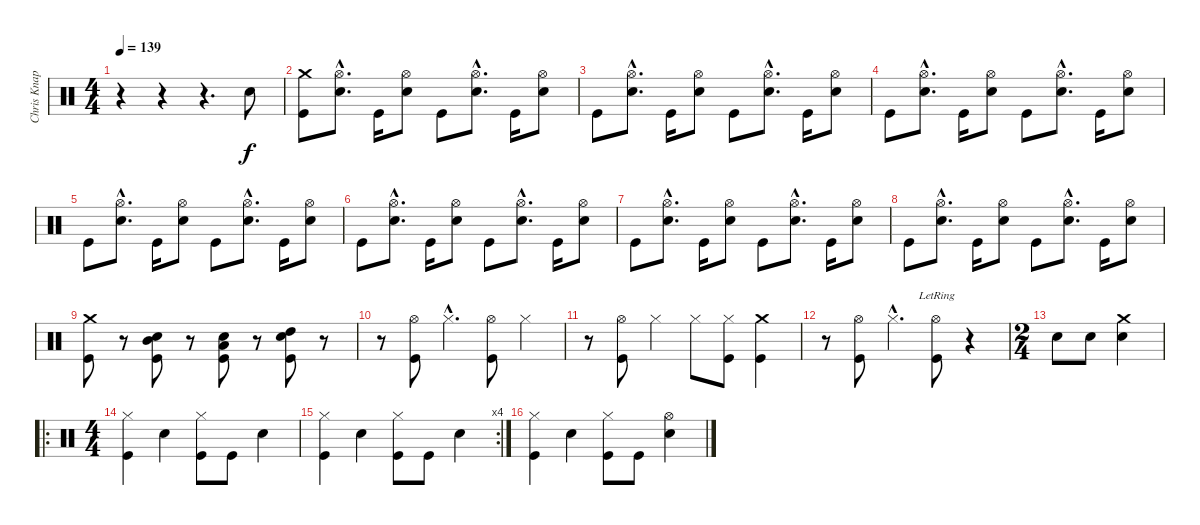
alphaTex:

\track ("Chris Knapp" "Chris Knap") {instrument percussion}
\staff {score}
\articulation defaults
\ts (4 4)
\tempo 139
\clef neutral
\ks c
r.4{dy f} r.4 r.4{d} "Electric Snare (hit)".8 |
("Crash medium (hit)" "Kick (hit)").8 ("Hi-Hat (open)"{hac} "Electric Snare (hit)"{hac}).8{d} "Kick (hit)".16 ("Hi-Hat (open)" "Electric Snare (hit)").8 "Kick (hit)".8 ("Hi-Hat (open)"{hac} "Electric Snare (hit)"{hac}).8{d} "Kick (hit)".16 ("Hi-Hat (open)" "Electric Snare (hit)").8 |
"Kick (hit)".8 ("Hi-Hat (open)"{hac} "Electric Snare (hit)"{hac}).8{d} "Kick (hit)".16 ("Hi-Hat (open)" "Electric Snare (hit)").8 "Kick (hit)".8 ("Hi-Hat (open)"{hac} "Electric Snare (hit)"{hac}).8{d} "Kick (hit)".16 ("Hi-Hat (open)" "Electric Snare (hit)").8 |
"Kick (hit)".8 ("Hi-Hat (open)"{hac} "Electric Snare (hit)"{hac}).8{d} "Kick (hit)".16 ("Hi-Hat (open)" "Electric Snare (hit)").8 "Kick (hit)".8 ("Hi-Hat (open)"{hac} "Electric Snare (hit)"{hac}).8{d} "Kick (hit)".16 ("Hi-Hat (open)" "Electric Snare (hit)").8 |
"Kick (hit)".8 ("Hi-Hat (open)"{hac} "Electric Snare (hit)"{hac}).8{d} "Kick (hit)".16 ("Hi-Hat (open)" "Electric Snare (hit)").8 "Kick (hit)".8 ("Hi-Hat (open)"{hac} "Electric Snare (hit)"{hac}).8{d} "Kick (hit)".16 ("Hi-Hat (open)" "Electric Snare (hit)").8 |
"Kick (hit)".8 ("Hi-Hat (open)"{hac} "Electric Snare (hit)"{hac}).8{d} "Kick (hit)".16 ("Hi-Hat (open)" "Electric Snare (hit)").8 "Kick (hit)".8 ("Hi-Hat (open)"{hac} "Electric Snare (hit)"{hac}).8{d} "Kick (hit)".16 ("Hi-Hat (open)" "Electric Snare (hit)").8 |
"Kick (hit)".8 ("Hi-Hat (open)"{hac} "Electric Snare (hit)"{hac}).8{d} "Kick (hit)".16 ("Hi-Hat (open)" "Electric Snare (hit)").8 "Kick (hit)".8 ("Hi-Hat (open)"{hac} "Electric Snare (hit)"{hac}).8{d} "Kick (hit)".16 ("Hi-Hat (open)" "Electric Snare (hit)").8 |
"Kick (hit)".8 ("Hi-Hat (open)"{hac} "Electric Snare (hit)"{hac}).8{d} "Kick (hit)".16 ("Hi-Hat (open)" "Electric Snare (hit)").8 "Kick (hit)".8 ("Hi-Hat (open)"{hac} "Electric Snare (hit)"{hac}).8{d} "Kick (hit)".16 ("Hi-Hat (open)" "Electric Snare (hit)").8 |
("Crash medium (hit)" "Kick (hit)").8 r.8 ("Electric Snare (hit)" "Mid Tom (hit)" "Kick (hit)").8 r.8 ("Electric Snare (hit)" "Low Floor Tom (hit)" "Kick (hit)").8 r.8 ("Electric Snare (hit)" "High Tom (hit)" "Kick (hit)").8 r.8 |
r.8 ("Hi-Hat (open)" "Kick (hit)").8 "Hi-Hat (closed)"{hac}.4{d} ("Hi-Hat (open)" "Kick (hit)").8 "Hi-Hat (closed)".4 |
r.8 ("Hi-Hat (open)" "Kick (hit)").8 "Hi-Hat (closed)".4 "Hi-Hat (closed)".8 ("Hi-Hat (closed)" "Kick (hit)").8 ("Crash medium (hit)" "Kick (hit)").4 |
r.8 ("Hi-Hat (open)" "Kick (hit)").8 "Hi-Hat (closed)"{hac}.4{d} ("Hi-Hat (open)"{lr} "Kick (hit)").8 r.4 |
\ts (2 4)
"Electric Snare (hit)".8 "Electric Snare (hit)".8 ("Crash medium (hit)" "Electric Snare (hit)").4 |
\ro
\ts (4 4)
("Hi-Hat (closed)" "Kick (hit)").4 "Electric Snare (hit)".4 ("Hi-Hat (closed)" "Kick (hit)").8 "Kick (hit)".8 "Electric Snare (hit)".4 |
\rc 4
("Hi-Hat (closed)" "Kick (hit)").4 "Electric Snare (hit)".4 ("Hi-Hat (closed)" "Kick (hit)").8 "Kick (hit)".8 "Electric Snare (hit)".4 |
("Hi-Hat (closed)" "Kick (hit)").4 "Electric Snare (hit)".4 ("Hi-Hat (closed)" "Kick (hit)").8 "Kick (hit)".8 ("Hi-Hat (open)" "Electric Snare (hit)").4
